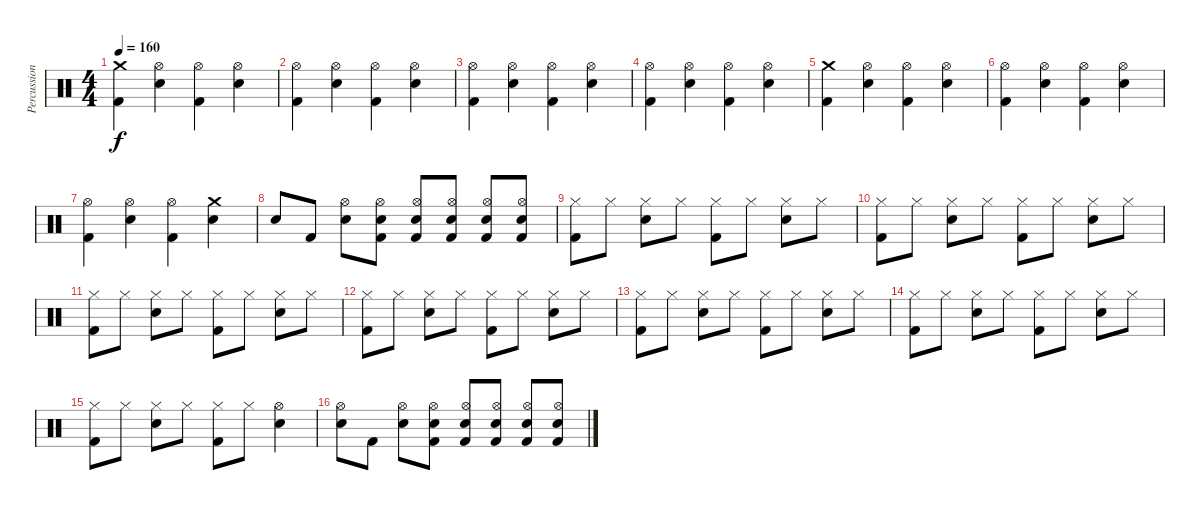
\track ("Percussion" "Percussion") {instrument percussion}
\staff {score}
\articulation defaults
\ts (4 4)
\tempo 160
\clef neutral
\ks c
("Crash medium (hit)" "Kick (hit) 2").4{dy f} ("Hi-Hat (open)" "Electric Snare (hit)").4 ("Hi-Hat (open)" "Kick (hit) 2").4 ("Hi-Hat (open)" "Electric Snare (hit)").4 |
("Hi-Hat (open)" "Kick (hit) 2").4 ("Hi-Hat (open)" "Electric Snare (hit)").4 ("Hi-Hat (open)" "Kick (hit) 2").4 ("Hi-Hat (open)" "Electric Snare (hit)").4 |
("Hi-Hat (open)" "Kick (hit) 2").4 ("Hi-Hat (open)" "Electric Snare (hit)").4 ("Hi-Hat (open)" "Kick (hit) 2").4 ("Hi-Hat (open)" "Electric Snare (hit)").4 |
("Hi-Hat (open)" "Kick (hit) 2").4 ("Hi-Hat (open)" "Electric Snare (hit)").4 ("Hi-Hat (open)" "Kick (hit) 2").4 ("Hi-Hat (open)" "Electric Snare (hit)").4 |
("Crash medium (hit)" "Kick (hit) 2").4 ("Hi-Hat (open)" "Electric Snare (hit)").4 ("Hi-Hat (open)" "Kick (hit) 2").4 ("Hi-Hat (open)" "Electric Snare (hit)").4 |
("Hi-Hat (open)" "Kick (hit) 2").4 ("Hi-Hat (open)" "Electric Snare (hit)").4 ("Hi-Hat (open)" "Kick (hit) 2").4 ("Hi-Hat (open)" "Electric Snare (hit)").4 |
("Hi-Hat (open)" "Kick (hit) 2").4 ("Hi-Hat (open)" "Electric Snare (hit)").4 ("Hi-Hat (open)" "Kick (hit) 2").4 ("Crash medium (hit)" "Electric Snare (hit)").4 |
"Electric Snare (hit)".8 "Kick (hit) 2".8 ("Hi-Hat (open)" "Electric Snare (hit)").8 ("Hi-Hat (open)" "Electric Snare (hit)" "Kick (hit) 2").8 ("Hi-Hat (open)" "Electric Snare (hit)" "Kick (hit) 2").8 ("Hi-Hat (open)" "Electric Snare (hit)" "Kick (hit) 2").8 ("Hi-Hat (open)" "Electric Snare (hit)" "Kick (hit) 2").8 ("Hi-Hat (open)" "Electric Snare (hit)" "Kick (hit) 2").8 |
("Hi-Hat (closed)" "Kick (hit) 2").8 "Hi-Hat (closed)".8 ("Hi-Hat (closed)" "Electric Snare (hit)").8 "Hi-Hat (closed)".8 ("Hi-Hat (closed)" "Kick (hit) 2").8 "Hi-Hat (closed)".8 ("Hi-Hat (closed)" "Electric Snare (hit)").8 "Hi-Hat (closed)".8 |
("Hi-Hat (closed)" "Kick (hit) 2").8 "Hi-Hat (closed)".8 ("Hi-Hat (closed)" "Electric Snare (hit)").8 "Hi-Hat (closed)".8 ("Hi-Hat (closed)" "Kick (hit) 2").8 "Hi-Hat (closed)".8 ("Hi-Hat (closed)" "Electric Snare (hit)").8 "Hi-Hat (closed)".8 |
("Hi-Hat (closed)" "Kick (hit) 2").8 "Hi-Hat (closed)".8 ("Hi-Hat (closed)" "Electric Snare (hit)").8 "Hi-Hat (closed)".8 ("Hi-Hat (closed)" "Kick (hit) 2").8 "Hi-Hat (closed)".8 ("Hi-Hat (closed)" "Electric Snare (hit)").8 "Hi-Hat (closed)".8 |
("Hi-Hat (closed)" "Kick (hit) 2").8 "Hi-Hat (closed)".8 ("Hi-Hat (closed)" "Electric Snare (hit)").8 "Hi-Hat (closed)".8 ("Hi-Hat (closed)" "Kick (hit) 2").8 "Hi-Hat (closed)".8 ("Hi-Hat (closed)" "Electric Snare (hit)").8 "Hi-Hat (closed)".8 |
("Hi-Hat (closed)" "Kick (hit) 2").8 "Hi-Hat (closed)".8 ("Hi-Hat (closed)" "Electric Snare (hit)").8 "Hi-Hat (closed)".8 ("Hi-Hat (closed)" "Kick (hit) 2").8 "Hi-Hat (closed)".8 ("Hi-Hat (closed)" "Electric Snare (hit)").8 "Hi-Hat (closed)".8 |
("Hi-Hat (closed)" "Kick (hit) 2").8 "Hi-Hat (closed)".8 ("Hi-Hat (closed)" "Electric Snare (hit)").8 "Hi-Hat (closed)".8 ("Hi-Hat (closed)" "Kick (hit) 2").8 "Hi-Hat (closed)".8 ("Hi-Hat (closed)" "Electric Snare (hit)").8 "Hi-Hat (closed)".8 |
("Hi-Hat (closed)" "Kick (hit) 2").8 "Hi-Hat (closed)".8 ("Hi-Hat (closed)" "Electric Snare (hit)").8 "Hi-Hat (closed)".8 ("Hi-Hat (closed)" "Kick (hit) 2").8 "Hi-Hat (closed)".8 ("Hi-Hat (open)" "Electric Snare (hit)").4 |
("Hi-Hat (open)" "Electric Snare (hit)").8 "Kick (hit) 2".8 ("Hi-Hat (open)" "Electric Snare (hit)").8 ("Hi-Hat (open)" "Electric Snare (hit)" "Kick (hit) 2").8 ("Hi-Hat (open)" "Electric Snare (hit)" "Kick (hit) 2").8 ("Hi-Hat (open)" "Electric Snare (hit)" "Kick (hit) 2").8 ("Hi-Hat (open)" "Electric Snare (hit)" "Kick (hit) 2").8 ("Hi-Hat (open)" "Electric Snare (hit)" "Kick (hit) 2").8
